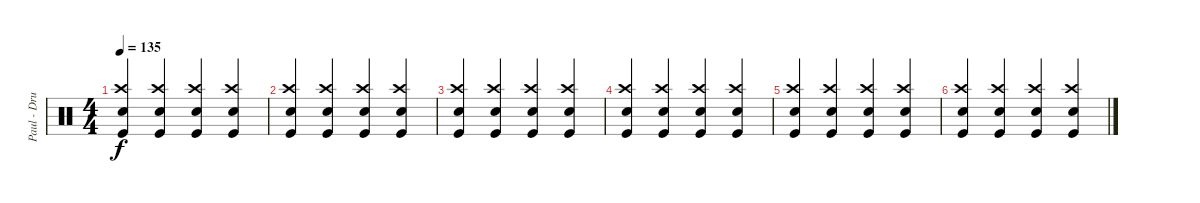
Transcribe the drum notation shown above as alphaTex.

\track ("Paul - Drums" "Paul - Dru") {instrument percussion}
\staff {score}
\articulation defaults
\ts (4 4)
\tempo 135
\clef neutral
\ks c
("Kick (hit)" "Crash high (hit)" "Snare (hit) 2").4{dy f} ("Kick (hit)" "Crash high (hit)" "Snare (hit) 2").4 ("Kick (hit)" "Crash high (hit)" "Snare (hit) 2").4 ("Kick (hit)" "Crash high (hit)" "Snare (hit) 2").4 |
("Kick (hit)" "Crash high (hit)" "Snare (hit) 2").4 ("Kick (hit)" "Crash high (hit)" "Snare (hit) 2").4 ("Kick (hit)" "Crash high (hit)" "Snare (hit) 2").4 ("Kick (hit)" "Crash high (hit)" "Snare (hit) 2").4 |
("Kick (hit)" "Crash high (hit)" "Snare (hit) 2").4 ("Kick (hit)" "Crash high (hit)" "Snare (hit) 2").4 ("Kick (hit)" "Crash high (hit)" "Snare (hit) 2").4 ("Kick (hit)" "Crash high (hit)" "Snare (hit) 2").4 |
("Kick (hit)" "Crash high (hit)" "Snare (hit) 2").4 ("Kick (hit)" "Crash high (hit)" "Snare (hit) 2").4 ("Kick (hit)" "Crash high (hit)" "Snare (hit) 2").4 ("Kick (hit)" "Crash high (hit)" "Snare (hit) 2").4 |
("Kick (hit)" "Crash high (hit)" "Snare (hit) 2").4 ("Kick (hit)" "Crash high (hit)" "Snare (hit) 2").4 ("Kick (hit)" "Crash high (hit)" "Snare (hit) 2").4 ("Kick (hit)" "Crash high (hit)" "Snare (hit) 2").4 |
("Kick (hit)" "Crash high (hit)" "Snare (hit) 2").4 ("Kick (hit)" "Crash high (hit)" "Snare (hit) 2").4 ("Kick (hit)" "Crash high (hit)" "Snare (hit) 2").4 ("Kick (hit)" "Crash high (hit)" "Snare (hit) 2").4
